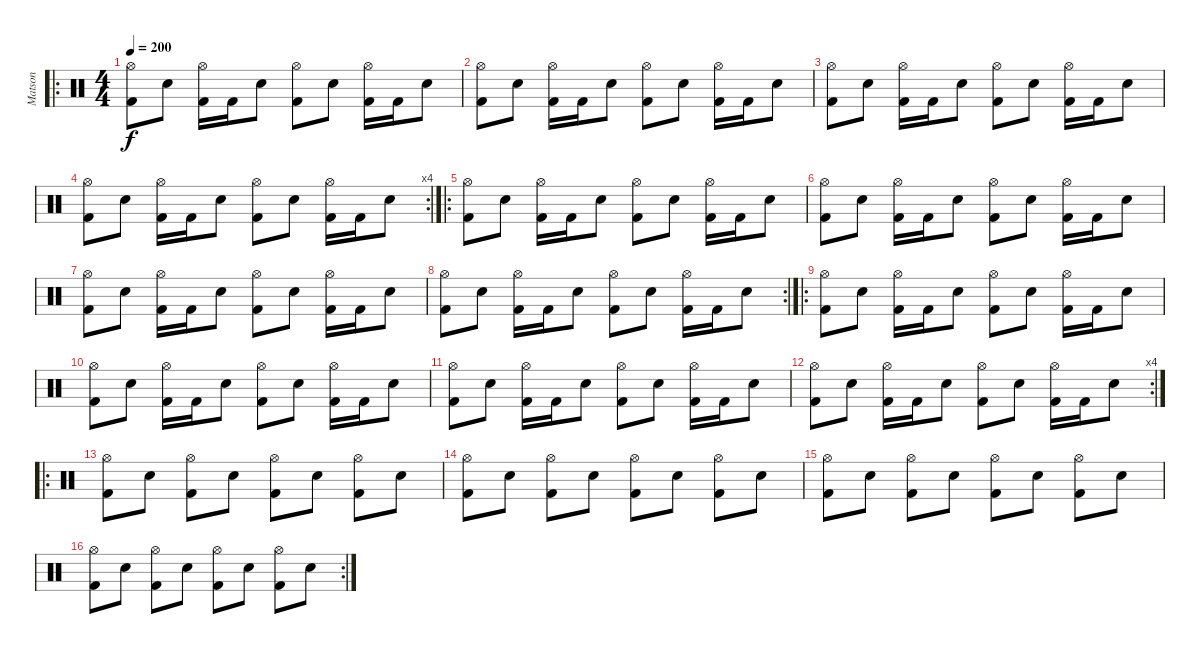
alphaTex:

\track ("Matson" "Matson") {instrument percussion}
\staff {score}
\articulation defaults
\ro
\ts (4 4)
\tempo 200
\clef neutral
\ks c
("Hi-Hat (open)" "Kick (hit) 2").8{dy f} "Electric Snare (hit)".8 ("Hi-Hat (open)" "Kick (hit) 2").16 "Kick (hit) 2".16 "Electric Snare (hit)".8 ("Hi-Hat (open)" "Kick (hit) 2").8 "Electric Snare (hit)".8 ("Hi-Hat (open)" "Kick (hit) 2").16 "Kick (hit) 2".16 "Electric Snare (hit)".8 |
("Hi-Hat (open)" "Kick (hit) 2").8 "Electric Snare (hit)".8 ("Hi-Hat (open)" "Kick (hit) 2").16 "Kick (hit) 2".16 "Electric Snare (hit)".8 ("Hi-Hat (open)" "Kick (hit) 2").8 "Electric Snare (hit)".8 ("Hi-Hat (open)" "Kick (hit) 2").16 "Kick (hit) 2".16 "Electric Snare (hit)".8 |
("Hi-Hat (open)" "Kick (hit) 2").8 "Electric Snare (hit)".8 ("Hi-Hat (open)" "Kick (hit) 2").16 "Kick (hit) 2".16 "Electric Snare (hit)".8 ("Hi-Hat (open)" "Kick (hit) 2").8 "Electric Snare (hit)".8 ("Hi-Hat (open)" "Kick (hit) 2").16 "Kick (hit) 2".16 "Electric Snare (hit)".8 |
\rc 4
("Hi-Hat (open)" "Kick (hit) 2").8 "Electric Snare (hit)".8 ("Hi-Hat (open)" "Kick (hit) 2").16 "Kick (hit) 2".16 "Electric Snare (hit)".8 ("Hi-Hat (open)" "Kick (hit) 2").8 "Electric Snare (hit)".8 ("Hi-Hat (open)" "Kick (hit) 2").16 "Kick (hit) 2".16 "Electric Snare (hit)".8 |
\ro
("Hi-Hat (open)" "Kick (hit) 2").8 "Electric Snare (hit)".8 ("Hi-Hat (open)" "Kick (hit) 2").16 "Kick (hit) 2".16 "Electric Snare (hit)".8 ("Hi-Hat (open)" "Kick (hit) 2").8 "Electric Snare (hit)".8 ("Hi-Hat (open)" "Kick (hit) 2").16 "Kick (hit) 2".16 "Electric Snare (hit)".8 |
("Hi-Hat (open)" "Kick (hit) 2").8 "Electric Snare (hit)".8 ("Hi-Hat (open)" "Kick (hit) 2").16 "Kick (hit) 2".16 "Electric Snare (hit)".8 ("Hi-Hat (open)" "Kick (hit) 2").8 "Electric Snare (hit)".8 ("Hi-Hat (open)" "Kick (hit) 2").16 "Kick (hit) 2".16 "Electric Snare (hit)".8 |
("Hi-Hat (open)" "Kick (hit) 2").8 "Electric Snare (hit)".8 ("Hi-Hat (open)" "Kick (hit) 2").16 "Kick (hit) 2".16 "Electric Snare (hit)".8 ("Hi-Hat (open)" "Kick (hit) 2").8 "Electric Snare (hit)".8 ("Hi-Hat (open)" "Kick (hit) 2").16 "Kick (hit) 2".16 "Electric Snare (hit)".8 |
\rc 2
("Hi-Hat (open)" "Kick (hit) 2").8 "Electric Snare (hit)".8 ("Hi-Hat (open)" "Kick (hit) 2").16 "Kick (hit) 2".16 "Electric Snare (hit)".8 ("Hi-Hat (open)" "Kick (hit) 2").8 "Electric Snare (hit)".8 ("Hi-Hat (open)" "Kick (hit) 2").16 "Kick (hit) 2".16 "Electric Snare (hit)".8 |
\ro
("Hi-Hat (open)" "Kick (hit) 2").8 "Electric Snare (hit)".8 ("Hi-Hat (open)" "Kick (hit) 2").16 "Kick (hit) 2".16 "Electric Snare (hit)".8 ("Hi-Hat (open)" "Kick (hit) 2").8 "Electric Snare (hit)".8 ("Hi-Hat (open)" "Kick (hit) 2").16 "Kick (hit) 2".16 "Electric Snare (hit)".8 |
("Hi-Hat (open)" "Kick (hit) 2").8 "Electric Snare (hit)".8 ("Hi-Hat (open)" "Kick (hit) 2").16 "Kick (hit) 2".16 "Electric Snare (hit)".8 ("Hi-Hat (open)" "Kick (hit) 2").8 "Electric Snare (hit)".8 ("Hi-Hat (open)" "Kick (hit) 2").16 "Kick (hit) 2".16 "Electric Snare (hit)".8 |
("Hi-Hat (open)" "Kick (hit) 2").8 "Electric Snare (hit)".8 ("Hi-Hat (open)" "Kick (hit) 2").16 "Kick (hit) 2".16 "Electric Snare (hit)".8 ("Hi-Hat (open)" "Kick (hit) 2").8 "Electric Snare (hit)".8 ("Hi-Hat (open)" "Kick (hit) 2").16 "Kick (hit) 2".16 "Electric Snare (hit)".8 |
\rc 4
("Hi-Hat (open)" "Kick (hit) 2").8 "Electric Snare (hit)".8 ("Hi-Hat (open)" "Kick (hit) 2").16 "Kick (hit) 2".16 "Electric Snare (hit)".8 ("Hi-Hat (open)" "Kick (hit) 2").8 "Electric Snare (hit)".8 ("Hi-Hat (open)" "Kick (hit) 2").16 "Kick (hit) 2".16 "Electric Snare (hit)".8 |
\ro
("Hi-Hat (open)" "Kick (hit) 2").8 "Electric Snare (hit)".8 ("Hi-Hat (open)" "Kick (hit) 2").8 "Electric Snare (hit)".8 ("Hi-Hat (open)" "Kick (hit) 2").8 "Electric Snare (hit)".8 ("Hi-Hat (open)" "Kick (hit) 2").8 "Electric Snare (hit)".8 |
("Hi-Hat (open)" "Kick (hit) 2").8 "Electric Snare (hit)".8 ("Hi-Hat (open)" "Kick (hit) 2").8 "Electric Snare (hit)".8 ("Hi-Hat (open)" "Kick (hit) 2").8 "Electric Snare (hit)".8 ("Hi-Hat (open)" "Kick (hit) 2").8 "Electric Snare (hit)".8 |
("Hi-Hat (open)" "Kick (hit) 2").8 "Electric Snare (hit)".8 ("Hi-Hat (open)" "Kick (hit) 2").8 "Electric Snare (hit)".8 ("Hi-Hat (open)" "Kick (hit) 2").8 "Electric Snare (hit)".8 ("Hi-Hat (open)" "Kick (hit) 2").8 "Electric Snare (hit)".8 |
\rc 2
("Hi-Hat (open)" "Kick (hit) 2").8 "Electric Snare (hit)".8 ("Hi-Hat (open)" "Kick (hit) 2").8 "Electric Snare (hit)".8 ("Hi-Hat (open)" "Kick (hit) 2").8 "Electric Snare (hit)".8 ("Hi-Hat (open)" "Kick (hit) 2").8 "Electric Snare (hit)".8
